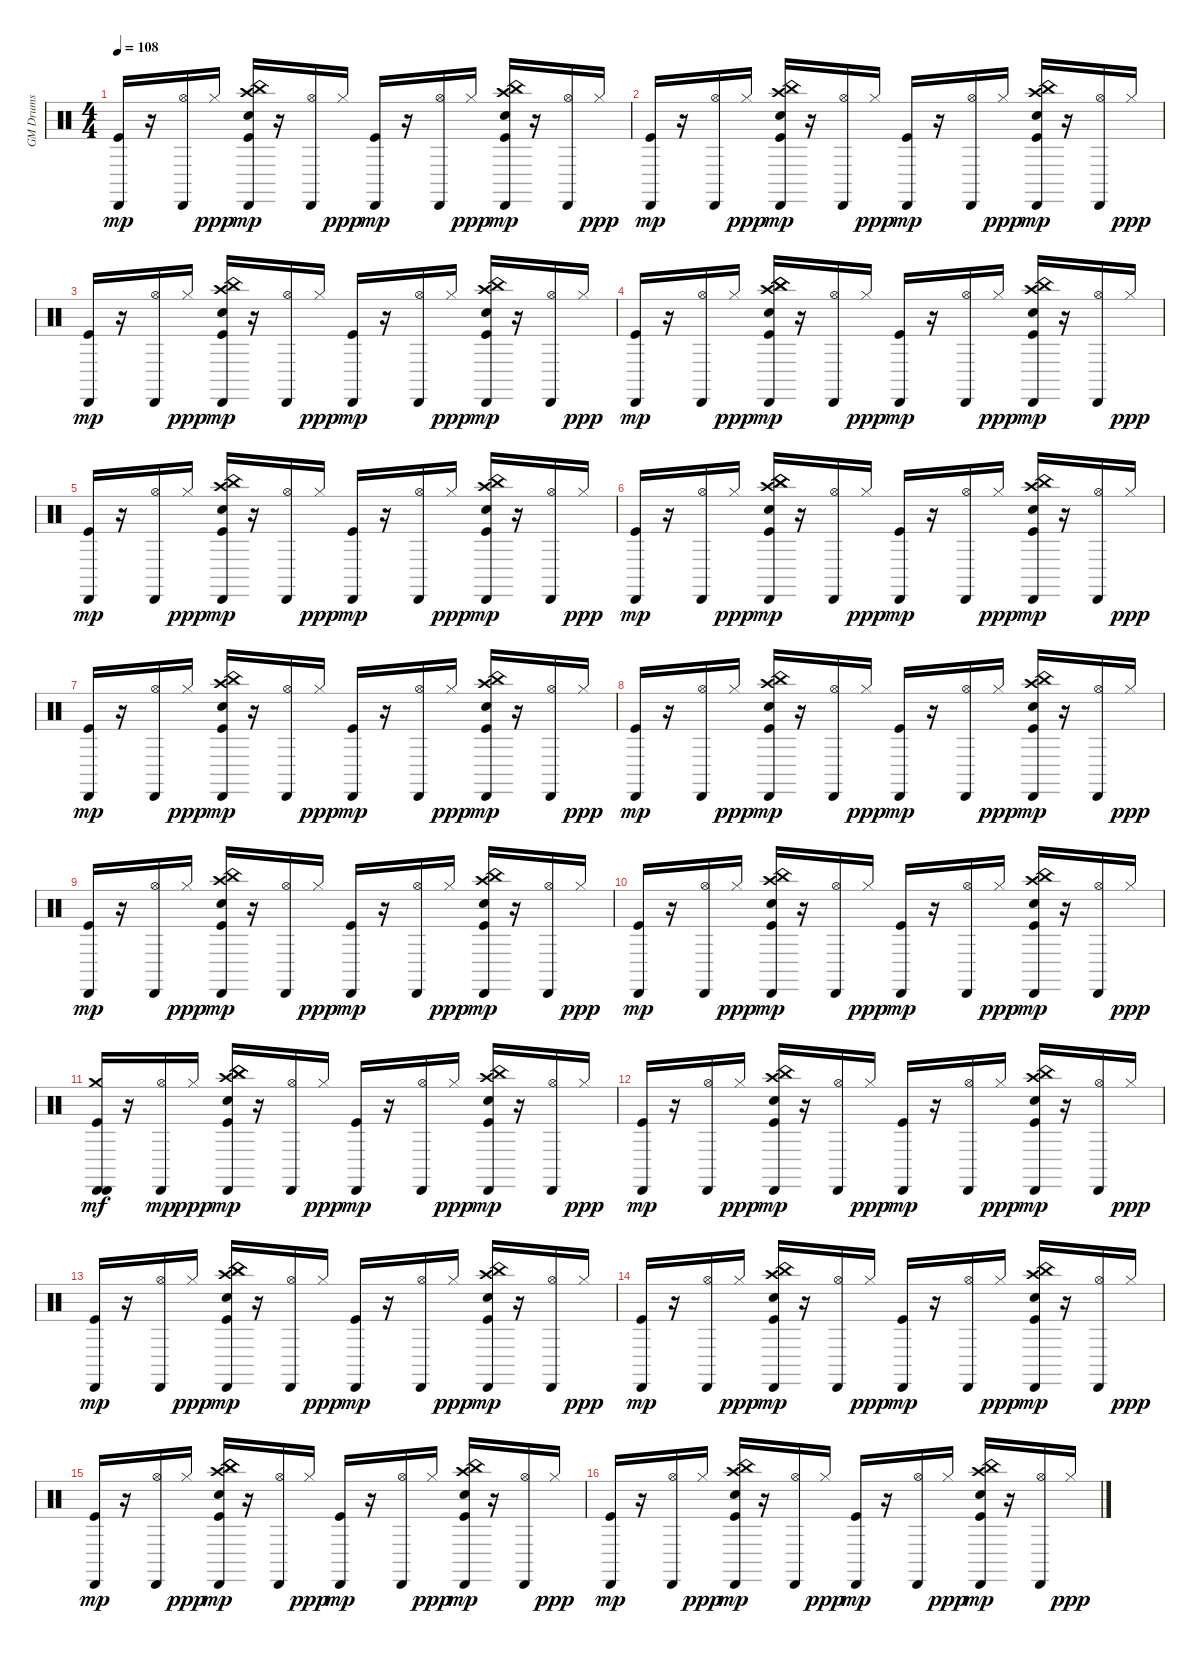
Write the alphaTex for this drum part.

\track ("GM Drums" "GM Drums") {instrument percussion}
\staff {score}
\articulation defaults
\ts (4 4)
\tempo 108
\clef neutral
\ks c
("Kick (hit)" "Cabasa (hit)").16{dy mp} r.16 ("Hi-Hat (open)" "Cabasa (hit)").16 "Hi-Hat (closed)".16{dy ppp} ("Kick (hit)" "Electric Snare (hit)" "Crash high (hit)" "China (hit)" "Cabasa (hit)").16{dy mp} r.16 ("Hi-Hat (open)" "Cabasa (hit)").16 "Hi-Hat (closed)".16{dy ppp} ("Kick (hit)" "Cabasa (hit)").16{dy mp} r.16 ("Hi-Hat (open)" "Cabasa (hit)").16 "Hi-Hat (closed)".16{dy ppp} ("Kick (hit)" "Electric Snare (hit)" "Crash high (hit)" "China (hit)" "Cabasa (hit)").16{dy mp} r.16 ("Hi-Hat (open)" "Cabasa (hit)").16 "Hi-Hat (closed)".16{dy ppp} |
("Kick (hit)" "Cabasa (hit)").16{dy mp} r.16 ("Hi-Hat (open)" "Cabasa (hit)").16 "Hi-Hat (closed)".16{dy ppp} ("Kick (hit)" "Electric Snare (hit)" "Crash high (hit)" "China (hit)" "Cabasa (hit)").16{dy mp} r.16 ("Hi-Hat (open)" "Cabasa (hit)").16 "Hi-Hat (closed)".16{dy ppp} ("Kick (hit)" "Cabasa (hit)").16{dy mp} r.16 ("Hi-Hat (open)" "Cabasa (hit)").16 "Hi-Hat (closed)".16{dy ppp} ("Kick (hit)" "Electric Snare (hit)" "Crash high (hit)" "China (hit)" "Cabasa (hit)").16{dy mp} r.16 ("Hi-Hat (open)" "Cabasa (hit)").16 "Hi-Hat (closed)".16{dy ppp} |
("Kick (hit)" "Cabasa (hit)").16{dy mp} r.16 ("Hi-Hat (open)" "Cabasa (hit)").16 "Hi-Hat (closed)".16{dy ppp} ("Kick (hit)" "Electric Snare (hit)" "Crash high (hit)" "China (hit)" "Cabasa (hit)").16{dy mp} r.16 ("Hi-Hat (open)" "Cabasa (hit)").16 "Hi-Hat (closed)".16{dy ppp} ("Kick (hit)" "Cabasa (hit)").16{dy mp} r.16 ("Hi-Hat (open)" "Cabasa (hit)").16 "Hi-Hat (closed)".16{dy ppp} ("Kick (hit)" "Electric Snare (hit)" "Crash high (hit)" "China (hit)" "Cabasa (hit)").16{dy mp} r.16 ("Hi-Hat (open)" "Cabasa (hit)").16 "Hi-Hat (closed)".16{dy ppp} |
("Kick (hit)" "Cabasa (hit)").16{dy mp} r.16 ("Hi-Hat (open)" "Cabasa (hit)").16 "Hi-Hat (closed)".16{dy ppp} ("Kick (hit)" "Electric Snare (hit)" "Crash high (hit)" "China (hit)" "China (hit)" "Cabasa (hit)").16{dy mp} r.16 ("Hi-Hat (open)" "Cabasa (hit)").16 "Hi-Hat (closed)".16{dy ppp} ("Kick (hit)" "Cabasa (hit)").16{dy mp} r.16 ("Hi-Hat (open)" "Cabasa (hit)").16 "Hi-Hat (closed)".16{dy ppp} ("Kick (hit)" "Electric Snare (hit)" "Crash high (hit)" "China (hit)" "Cabasa (hit)").16{dy mp} r.16 ("Hi-Hat (open)" "Cabasa (hit)").16 "Hi-Hat (closed)".16{dy ppp} |
("Kick (hit)" "Cabasa (hit)").16{dy mp} r.16 ("Hi-Hat (open)" "Cabasa (hit)").16 "Hi-Hat (closed)".16{dy ppp} ("Kick (hit)" "Electric Snare (hit)" "Crash high (hit)" "China (hit)" "Cabasa (hit)").16{dy mp} r.16 ("Hi-Hat (open)" "Cabasa (hit)").16 "Hi-Hat (closed)".16{dy ppp} ("Kick (hit)" "Cabasa (hit)").16{dy mp} r.16 ("Hi-Hat (open)" "Cabasa (hit)").16 "Hi-Hat (closed)".16{dy ppp} ("Kick (hit)" "Electric Snare (hit)" "Crash high (hit)" "China (hit)" "Cabasa (hit)").16{dy mp} r.16 ("Hi-Hat (open)" "Cabasa (hit)").16 "Hi-Hat (closed)".16{dy ppp} |
("Kick (hit)" "Cabasa (hit)").16{dy mp} r.16 ("Hi-Hat (open)" "Cabasa (hit)").16 "Hi-Hat (closed)".16{dy ppp} ("Kick (hit)" "Electric Snare (hit)" "Crash high (hit)" "China (hit)" "China (hit)" "Cabasa (hit)").16{dy mp} r.16 ("Hi-Hat (open)" "Cabasa (hit)").16 "Hi-Hat (closed)".16{dy ppp} ("Kick (hit)" "Cabasa (hit)").16{dy mp} r.16 ("Hi-Hat (open)" "Cabasa (hit)").16 "Hi-Hat (closed)".16{dy ppp} ("Kick (hit)" "Electric Snare (hit)" "Crash high (hit)" "China (hit)" "Cabasa (hit)").16{dy mp} r.16 ("Hi-Hat (open)" "Cabasa (hit)").16 "Hi-Hat (closed)".16{dy ppp} |
("Kick (hit)" "Cabasa (hit)").16{dy mp} r.16 ("Hi-Hat (open)" "Cabasa (hit)").16 "Hi-Hat (closed)".16{dy ppp} ("Kick (hit)" "Electric Snare (hit)" "Crash high (hit)" "China (hit)" "Cabasa (hit)").16{dy mp} r.16 ("Hi-Hat (open)" "Cabasa (hit)").16 "Hi-Hat (closed)".16{dy ppp} ("Kick (hit)" "Cabasa (hit)").16{dy mp} r.16 ("Hi-Hat (open)" "Cabasa (hit)").16 "Hi-Hat (closed)".16{dy ppp} ("Kick (hit)" "Electric Snare (hit)" "Crash high (hit)" "China (hit)" "Cabasa (hit)").16{dy mp} r.16 ("Hi-Hat (open)" "Cabasa (hit)").16 "Hi-Hat (closed)".16{dy ppp} |
("Kick (hit)" "Cabasa (hit)").16{dy mp} r.16 ("Hi-Hat (open)" "Cabasa (hit)").16 "Hi-Hat (closed)".16{dy ppp} ("Kick (hit)" "Electric Snare (hit)" "Crash high (hit)" "China (hit)" "Cabasa (hit)").16{dy mp} r.16 ("Hi-Hat (open)" "Cabasa (hit)").16 "Hi-Hat (closed)".16{dy ppp} ("Kick (hit)" "Cabasa (hit)").16{dy mp} r.16 ("Hi-Hat (open)" "Cabasa (hit)").16 "Hi-Hat (closed)".16{dy ppp} ("Kick (hit)" "Electric Snare (hit)" "Crash high (hit)" "China (hit)" "Cabasa (hit)").16{dy mp} r.16 ("Hi-Hat (open)" "Cabasa (hit)").16 "Hi-Hat (closed)".16{dy ppp} |
("Kick (hit)" "Cabasa (hit)").16{dy mp} r.16 ("Hi-Hat (open)" "Cabasa (hit)").16 "Hi-Hat (closed)".16{dy ppp} ("Kick (hit)" "Electric Snare (hit)" "Crash high (hit)" "China (hit)" "Cabasa (hit)").16{dy mp} r.16 ("Hi-Hat (open)" "Cabasa (hit)").16 "Hi-Hat (closed)".16{dy ppp} ("Kick (hit)" "Cabasa (hit)").16{dy mp} r.16 ("Hi-Hat (open)" "Cabasa (hit)").16 "Hi-Hat (closed)".16{dy ppp} ("Kick (hit)" "Electric Snare (hit)" "Crash high (hit)" "China (hit)" "Cabasa (hit)").16{dy mp} r.16 ("Hi-Hat (open)" "Cabasa (hit)").16 "Hi-Hat (closed)".16{dy ppp} |
("Kick (hit)" "Cabasa (hit)").16{dy mp} r.16 ("Hi-Hat (open)" "Cabasa (hit)").16 "Hi-Hat (closed)".16{dy ppp} ("Kick (hit)" "Electric Snare (hit)" "Crash high (hit)" "China (hit)" "Cabasa (hit)").16{dy mp} r.16 ("Hi-Hat (open)" "Cabasa (hit)").16 "Hi-Hat (closed)".16{dy ppp} ("Kick (hit)" "Cabasa (hit)").16{dy mp} r.16 ("Hi-Hat (open)" "Cabasa (hit)").16 "Hi-Hat (closed)".16{dy ppp} ("Kick (hit)" "Electric Snare (hit)" "Crash high (hit)" "China (hit)" "Cabasa (hit)").16{dy mp} r.16 ("Hi-Hat (open)" "Cabasa (hit)").16 "Hi-Hat (closed)".16{dy ppp} |
("Kick (hit)" "Crash medium (hit)" "Cabasa (hit)" "Cabasa (hit)").16{dy mf} r.16 ("Hi-Hat (open)" "Cabasa (hit)").16{dy mp} "Hi-Hat (closed)".16{dy ppp} ("Kick (hit)" "Electric Snare (hit)" "Crash high (hit)" "China (hit)" "China (hit)" "Cabasa (hit)").16{dy mp} r.16 ("Hi-Hat (open)" "Cabasa (hit)").16 "Hi-Hat (closed)".16{dy ppp} ("Kick (hit)" "Cabasa (hit)").16{dy mp} r.16 ("Hi-Hat (open)" "Cabasa (hit)").16 "Hi-Hat (closed)".16{dy ppp} ("Kick (hit)" "Electric Snare (hit)" "Crash high (hit)" "China (hit)" "Cabasa (hit)").16{dy mp} r.16 ("Hi-Hat (open)" "Cabasa (hit)").16 "Hi-Hat (closed)".16{dy ppp} |
("Kick (hit)" "Cabasa (hit)").16{dy mp} r.16 ("Hi-Hat (open)" "Cabasa (hit)").16 "Hi-Hat (closed)".16{dy ppp} ("Kick (hit)" "Electric Snare (hit)" "Crash high (hit)" "China (hit)" "Cabasa (hit)").16{dy mp} r.16 ("Hi-Hat (open)" "Cabasa (hit)").16 "Hi-Hat (closed)".16{dy ppp} ("Kick (hit)" "Cabasa (hit)").16{dy mp} r.16 ("Hi-Hat (open)" "Cabasa (hit)").16 "Hi-Hat (closed)".16{dy ppp} ("Kick (hit)" "Electric Snare (hit)" "Crash high (hit)" "China (hit)" "Cabasa (hit)").16{dy mp} r.16 ("Hi-Hat (open)" "Cabasa (hit)").16 "Hi-Hat (closed)".16{dy ppp} |
("Kick (hit)" "Cabasa (hit)").16{dy mp} r.16 ("Hi-Hat (open)" "Cabasa (hit)").16 "Hi-Hat (closed)".16{dy ppp} ("Kick (hit)" "Electric Snare (hit)" "Crash high (hit)" "China (hit)" "China (hit)" "Cabasa (hit)").16{dy mp} r.16 ("Hi-Hat (open)" "Cabasa (hit)").16 "Hi-Hat (closed)".16{dy ppp} ("Kick (hit)" "Cabasa (hit)").16{dy mp} r.16 ("Hi-Hat (open)" "Cabasa (hit)").16 "Hi-Hat (closed)".16{dy ppp} ("Kick (hit)" "Electric Snare (hit)" "Crash high (hit)" "China (hit)" "Cabasa (hit)").16{dy mp} r.16 ("Hi-Hat (open)" "Cabasa (hit)").16 "Hi-Hat (closed)".16{dy ppp} |
("Kick (hit)" "Cabasa (hit)").16{dy mp} r.16 ("Hi-Hat (open)" "Cabasa (hit)").16 "Hi-Hat (closed)".16{dy ppp} ("Kick (hit)" "Electric Snare (hit)" "Crash high (hit)" "China (hit)" "Cabasa (hit)").16{dy mp} r.16 ("Hi-Hat (open)" "Cabasa (hit)").16 "Hi-Hat (closed)".16{dy ppp} ("Kick (hit)" "Cabasa (hit)").16{dy mp} r.16 ("Hi-Hat (open)" "Cabasa (hit)").16 "Hi-Hat (closed)".16{dy ppp} ("Kick (hit)" "Electric Snare (hit)" "Crash high (hit)" "China (hit)" "Cabasa (hit)").16{dy mp} r.16 ("Hi-Hat (open)" "Cabasa (hit)").16 "Hi-Hat (closed)".16{dy ppp} |
("Kick (hit)" "Cabasa (hit)").16{dy mp} r.16 ("Hi-Hat (open)" "Cabasa (hit)").16 "Hi-Hat (closed)".16{dy ppp} ("Kick (hit)" "Electric Snare (hit)" "Crash high (hit)" "China (hit)" "China (hit)" "Cabasa (hit)").16{dy mp} r.16 ("Hi-Hat (open)" "Cabasa (hit)").16 "Hi-Hat (closed)".16{dy ppp} ("Kick (hit)" "Cabasa (hit)").16{dy mp} r.16 ("Hi-Hat (open)" "Cabasa (hit)").16 "Hi-Hat (closed)".16{dy ppp} ("Kick (hit)" "Electric Snare (hit)" "Crash high (hit)" "China (hit)" "Cabasa (hit)").16{dy mp} r.16 ("Hi-Hat (open)" "Cabasa (hit)").16 "Hi-Hat (closed)".16{dy ppp} |
("Kick (hit)" "Cabasa (hit)").16{dy mp} r.16 ("Hi-Hat (open)" "Cabasa (hit)").16 "Hi-Hat (closed)".16{dy ppp} ("Kick (hit)" "Electric Snare (hit)" "Crash high (hit)" "China (hit)" "Cabasa (hit)").16{dy mp} r.16 ("Hi-Hat (open)" "Cabasa (hit)").16 "Hi-Hat (closed)".16{dy ppp} ("Kick (hit)" "Cabasa (hit)").16{dy mp} r.16 ("Hi-Hat (open)" "Cabasa (hit)").16 "Hi-Hat (closed)".16{dy ppp} ("Kick (hit)" "Electric Snare (hit)" "Crash high (hit)" "China (hit)" "Cabasa (hit)").16{dy mp} r.16 ("Hi-Hat (open)" "Cabasa (hit)").16 "Hi-Hat (closed)".16{dy ppp}
